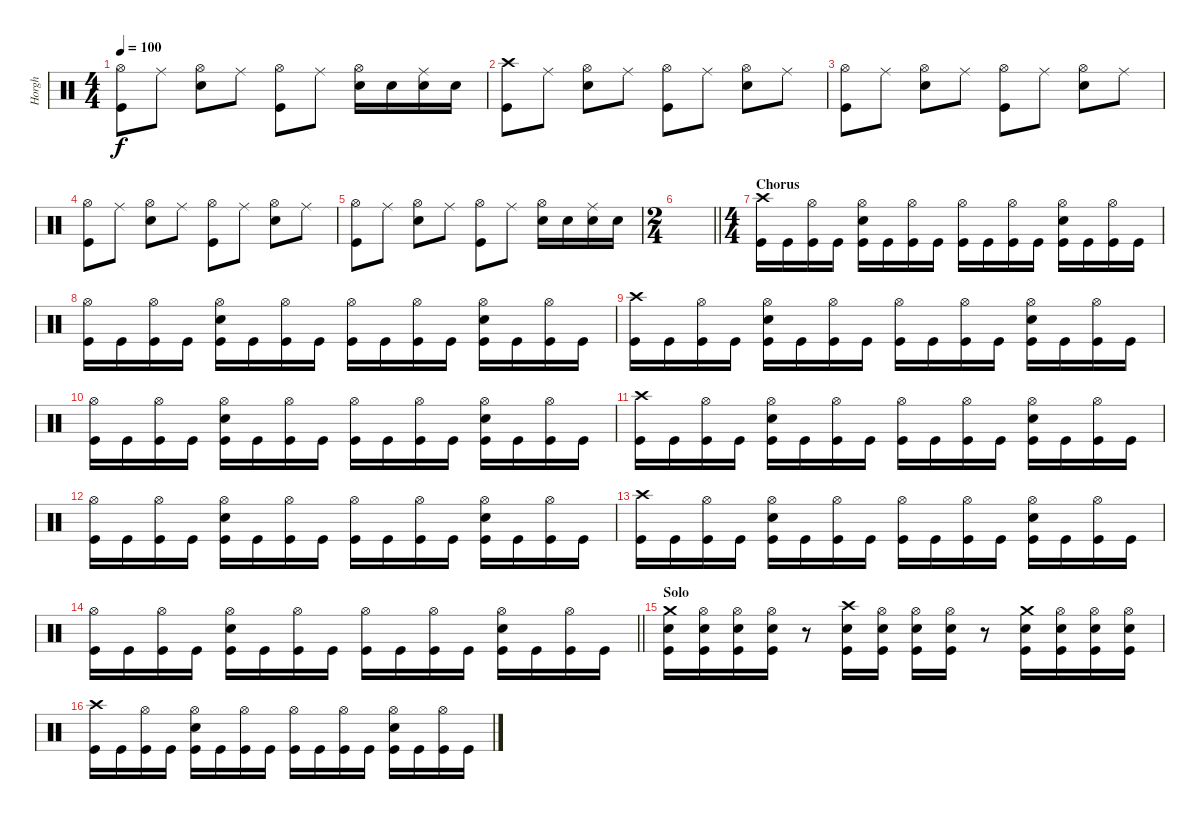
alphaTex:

\track ("Horgh" "Horgh") {instrument percussion}
\staff {score}
\articulation defaults
\ts (4 4)
\tempo 100
\clef neutral
\ks c
("Hi-Hat (open)" "Kick (hit)").8{dy f} "Ride (middle)".8 ("Hi-Hat (open)" "Electric Snare (hit)").8 "Ride (middle)".8 ("Hi-Hat (open)" "Kick (hit)").8 "Ride (middle)".8 ("Hi-Hat (open)" "Electric Snare (hit)").16 "Electric Snare (hit)".16 ("Ride (middle)" "Electric Snare (hit)").16 "Electric Snare (hit)".16 |
("Crash high (hit)" "Kick (hit)").8 "Ride (middle)".8 ("Hi-Hat (open)" "Electric Snare (hit)").8 "Ride (middle)".8 ("Hi-Hat (open)" "Kick (hit)").8 "Ride (middle)".8 ("Hi-Hat (open)" "Electric Snare (hit)").8 "Ride (middle)".8 |
("Hi-Hat (open)" "Kick (hit)").8 "Ride (middle)".8 ("Hi-Hat (open)" "Electric Snare (hit)").8 "Ride (middle)".8 ("Hi-Hat (open)" "Kick (hit)").8 "Ride (middle)".8 ("Hi-Hat (open)" "Electric Snare (hit)").8 "Ride (middle)".8 |
("Hi-Hat (open)" "Kick (hit)").8 "Ride (middle)".8 ("Hi-Hat (open)" "Electric Snare (hit)").8 "Ride (middle)".8 ("Hi-Hat (open)" "Kick (hit)").8 "Ride (middle)".8 ("Hi-Hat (open)" "Electric Snare (hit)").8 "Ride (middle)".8 |
("Hi-Hat (open)" "Kick (hit)").8 "Ride (middle)".8 ("Hi-Hat (open)" "Electric Snare (hit)").8 "Ride (middle)".8 ("Hi-Hat (open)" "Kick (hit)").8 "Ride (middle)".8 ("Hi-Hat (open)" "Electric Snare (hit)").16 "Electric Snare (hit)".16 ("Ride (middle)" "Electric Snare (hit)").16 "Electric Snare (hit)".16 |
\ts (2 4)
\barLineRight lightlight
|
\ts (4 4)
\section ("" "Chorus")
("Crash high (hit)" "Kick (hit)").16 "Kick (hit)".16 ("Hi-Hat (open)" "Kick (hit)").16 "Kick (hit)".16 ("Hi-Hat (open)" "Electric Snare (hit)" "Kick (hit)").16 "Kick (hit)".16 ("Hi-Hat (open)" "Kick (hit)").16 "Kick (hit)".16 ("Hi-Hat (open)" "Kick (hit)").16 "Kick (hit)".16 ("Hi-Hat (open)" "Kick (hit)").16 "Kick (hit)".16 ("Hi-Hat (open)" "Electric Snare (hit)" "Kick (hit)").16 "Kick (hit)".16 ("Hi-Hat (open)" "Kick (hit)").16 "Kick (hit)".16 |
("Hi-Hat (open)" "Kick (hit)").16 "Kick (hit)".16 ("Hi-Hat (open)" "Kick (hit)").16 "Kick (hit)".16 ("Hi-Hat (open)" "Electric Snare (hit)" "Kick (hit)").16 "Kick (hit)".16 ("Hi-Hat (open)" "Kick (hit)").16 "Kick (hit)".16 ("Hi-Hat (open)" "Kick (hit)").16 "Kick (hit)".16 ("Hi-Hat (open)" "Kick (hit)").16 "Kick (hit)".16 ("Hi-Hat (open)" "Electric Snare (hit)" "Kick (hit)").16 "Kick (hit)".16 ("Hi-Hat (open)" "Kick (hit)").16 "Kick (hit)".16 |
("Crash high (hit)" "Kick (hit)").16 "Kick (hit)".16 ("Hi-Hat (open)" "Kick (hit)").16 "Kick (hit)".16 ("Hi-Hat (open)" "Electric Snare (hit)" "Kick (hit)").16 "Kick (hit)".16 ("Hi-Hat (open)" "Kick (hit)").16 "Kick (hit)".16 ("Hi-Hat (open)" "Kick (hit)").16 "Kick (hit)".16 ("Hi-Hat (open)" "Kick (hit)").16 "Kick (hit)".16 ("Hi-Hat (open)" "Electric Snare (hit)" "Kick (hit)").16 "Kick (hit)".16 ("Hi-Hat (open)" "Kick (hit)").16 "Kick (hit)".16 |
("Hi-Hat (open)" "Kick (hit)").16 "Kick (hit)".16 ("Hi-Hat (open)" "Kick (hit)").16 "Kick (hit)".16 ("Hi-Hat (open)" "Electric Snare (hit)" "Kick (hit)").16 "Kick (hit)".16 ("Hi-Hat (open)" "Kick (hit)").16 "Kick (hit)".16 ("Hi-Hat (open)" "Kick (hit)").16 "Kick (hit)".16 ("Hi-Hat (open)" "Kick (hit)").16 "Kick (hit)".16 ("Hi-Hat (open)" "Electric Snare (hit)" "Kick (hit)").16 "Kick (hit)".16 ("Hi-Hat (open)" "Kick (hit)").16 "Kick (hit)".16 |
("Crash high (hit)" "Kick (hit)").16 "Kick (hit)".16 ("Hi-Hat (open)" "Kick (hit)").16 "Kick (hit)".16 ("Hi-Hat (open)" "Electric Snare (hit)" "Kick (hit)").16 "Kick (hit)".16 ("Hi-Hat (open)" "Kick (hit)").16 "Kick (hit)".16 ("Hi-Hat (open)" "Kick (hit)").16 "Kick (hit)".16 ("Hi-Hat (open)" "Kick (hit)").16 "Kick (hit)".16 ("Hi-Hat (open)" "Electric Snare (hit)" "Kick (hit)").16 "Kick (hit)".16 ("Hi-Hat (open)" "Kick (hit)").16 "Kick (hit)".16 |
("Hi-Hat (open)" "Kick (hit)").16 "Kick (hit)".16 ("Hi-Hat (open)" "Kick (hit)").16 "Kick (hit)".16 ("Hi-Hat (open)" "Electric Snare (hit)" "Kick (hit)").16 "Kick (hit)".16 ("Hi-Hat (open)" "Kick (hit)").16 "Kick (hit)".16 ("Hi-Hat (open)" "Kick (hit)").16 "Kick (hit)".16 ("Hi-Hat (open)" "Kick (hit)").16 "Kick (hit)".16 ("Hi-Hat (open)" "Electric Snare (hit)" "Kick (hit)").16 "Kick (hit)".16 ("Hi-Hat (open)" "Kick (hit)").16 "Kick (hit)".16 |
("Crash high (hit)" "Kick (hit)").16 "Kick (hit)".16 ("Hi-Hat (open)" "Kick (hit)").16 "Kick (hit)".16 ("Hi-Hat (open)" "Electric Snare (hit)" "Kick (hit)").16 "Kick (hit)".16 ("Hi-Hat (open)" "Kick (hit)").16 "Kick (hit)".16 ("Hi-Hat (open)" "Kick (hit)").16 "Kick (hit)".16 ("Hi-Hat (open)" "Kick (hit)").16 "Kick (hit)".16 ("Hi-Hat (open)" "Electric Snare (hit)" "Kick (hit)").16 "Kick (hit)".16 ("Hi-Hat (open)" "Kick (hit)").16 "Kick (hit)".16 |
\barLineRight lightlight
("Hi-Hat (open)" "Kick (hit)").16 "Kick (hit)".16 ("Hi-Hat (open)" "Kick (hit)").16 "Kick (hit)".16 ("Hi-Hat (open)" "Electric Snare (hit)" "Kick (hit)").16 "Kick (hit)".16 ("Hi-Hat (open)" "Kick (hit)").16 "Kick (hit)".16 ("Hi-Hat (open)" "Kick (hit)").16 "Kick (hit)".16 ("Hi-Hat (open)" "Kick (hit)").16 "Kick (hit)".16 ("Hi-Hat (open)" "Electric Snare (hit)" "Kick (hit)").16 "Kick (hit)".16 ("Hi-Hat (open)" "Kick (hit)").16 "Kick (hit)".16 |
\section ("" "Solo")
("Crash medium (hit)" "Electric Snare (hit)" "Kick (hit)").16 ("Hi-Hat (open)" "Electric Snare (hit)" "Kick (hit)").16 ("Hi-Hat (open)" "Electric Snare (hit)" "Kick (hit)").16 ("Hi-Hat (open)" "Electric Snare (hit)" "Kick (hit)").16 r.8 ("Crash high (hit)" "Electric Snare (hit)" "Kick (hit)").16 ("Hi-Hat (open)" "Electric Snare (hit)" "Kick (hit)").16 ("Hi-Hat (open)" "Electric Snare (hit)" "Kick (hit)").16 ("Hi-Hat (open)" "Electric Snare (hit)" "Kick (hit)").16 r.8 ("Crash medium (hit)" "Electric Snare (hit)" "Kick (hit)").16 ("Hi-Hat (open)" "Electric Snare (hit)" "Kick (hit)").16 ("Hi-Hat (open)" "Electric Snare (hit)" "Kick (hit)").16 ("Hi-Hat (open)" "Electric Snare (hit)" "Kick (hit)").16 |
("Crash high (hit)" "Kick (hit)").16 "Kick (hit)".16 ("Hi-Hat (open)" "Kick (hit)").16 "Kick (hit)".16 ("Hi-Hat (open)" "Electric Snare (hit)" "Kick (hit)").16 "Kick (hit)".16 ("Hi-Hat (open)" "Kick (hit)").16 "Kick (hit)".16 ("Hi-Hat (open)" "Kick (hit)").16 "Kick (hit)".16 ("Hi-Hat (open)" "Kick (hit)").16 "Kick (hit)".16 ("Hi-Hat (open)" "Electric Snare (hit)" "Kick (hit)").16 "Kick (hit)".16 ("Hi-Hat (open)" "Kick (hit)").16 "Kick (hit)".16
